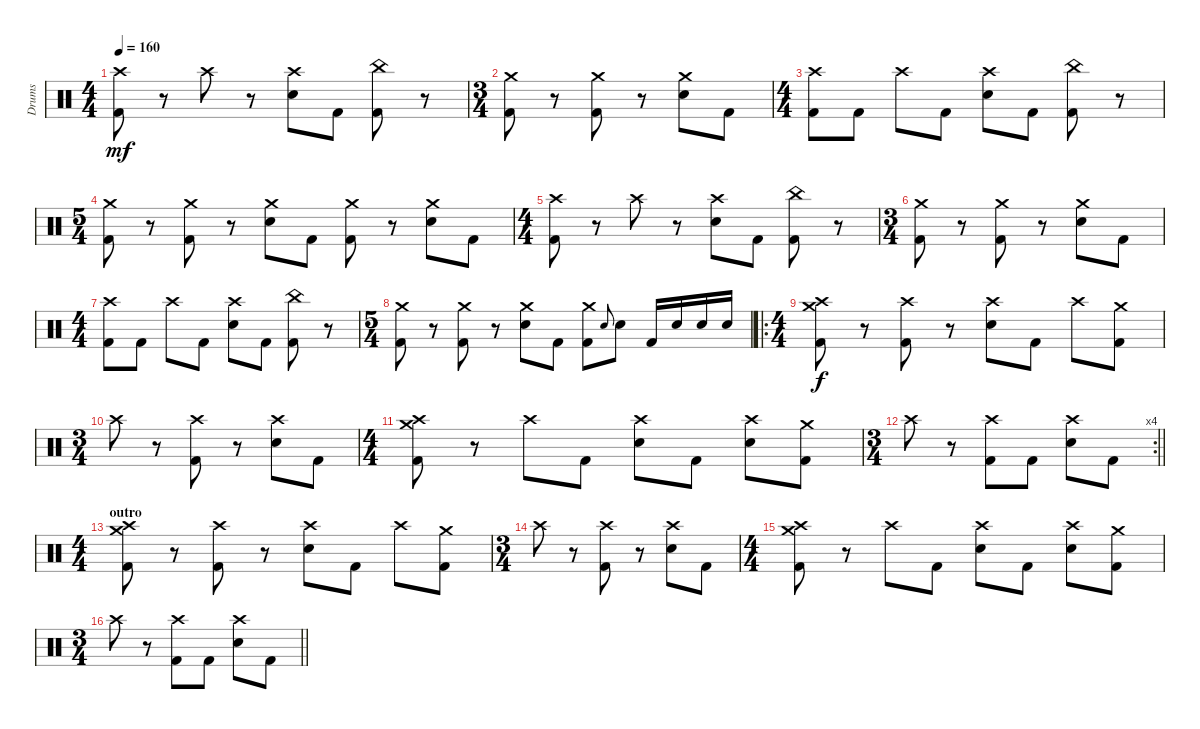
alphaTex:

\track ("Drums" "Drums") {instrument percussion}
\staff {score}
\articulation defaults
\ts (4 4)
\tempo 160
\clef neutral
\ks c
("Crash high (hit)" "Kick (hit) 2").8{dy mf} r.8 "Crash high (hit)".8 r.8 ("Crash high (hit)" "Electric Snare (hit)").8 "Kick (hit) 2".8 ("China (hit)" "Kick (hit) 2").8 r.8 |
\ts (3 4)
("Crash medium (hit)" "Kick (hit) 2").8 r.8 ("Crash medium (hit)" "Kick (hit) 2").8 r.8 ("Crash medium (hit)" "Electric Snare (hit)").8 "Kick (hit) 2".8 |
\ts (4 4)
("Crash high (hit)" "Kick (hit) 2").8 "Kick (hit) 2".8 "Crash high (hit)".8 "Kick (hit) 2".8 ("Crash high (hit)" "Electric Snare (hit)").8 "Kick (hit) 2".8 ("China (hit)" "Kick (hit) 2").8 r.8 |
\ts (5 4)
("Crash medium (hit)" "Kick (hit) 2").8 r.8 ("Crash medium (hit)" "Kick (hit) 2").8 r.8 ("Crash medium (hit)" "Electric Snare (hit)").8 "Kick (hit) 2".8 ("Crash medium (hit)" "Kick (hit) 2").8 r.8 ("Crash medium (hit)" "Electric Snare (hit)").8 "Kick (hit) 2".8 |
\ts (4 4)
("Crash high (hit)" "Kick (hit) 2").8 r.8 "Crash high (hit)".8 r.8 ("Crash high (hit)" "Electric Snare (hit)").8 "Kick (hit) 2".8 ("China (hit)" "Kick (hit) 2").8 r.8 |
\ts (3 4)
("Crash medium (hit)" "Kick (hit) 2").8 r.8 ("Crash medium (hit)" "Kick (hit) 2").8 r.8 ("Crash medium (hit)" "Electric Snare (hit)").8 "Kick (hit) 2".8 |
\ts (4 4)
("Crash high (hit)" "Kick (hit) 2").8 "Kick (hit) 2".8 "Crash high (hit)".8 "Kick (hit) 2".8 ("Crash high (hit)" "Electric Snare (hit)").8 "Kick (hit) 2".8 ("China (hit)" "Kick (hit) 2").8 r.8 |
\ts (5 4)
("Crash medium (hit)" "Kick (hit) 2").8 r.8 ("Crash medium (hit)" "Kick (hit) 2").8 r.8 ("Crash medium (hit)" "Electric Snare (hit)").8 "Kick (hit) 2".8 ("Crash medium (hit)" "Kick (hit) 2").8 "Electric Snare (hit)".8{gr onbeat} "Electric Snare (hit)".8 "Kick (hit) 2".16 "Electric Snare (hit)".16 "Electric Snare (hit)".16 "Electric Snare (hit)".16 |
\ro
\ts (4 4)
("Crash high (hit)" "Crash medium (hit)" "Kick (hit) 2").8{dy f} r.8 ("Crash high (hit)" "Kick (hit) 2").8 r.8 ("Crash high (hit)" "Electric Snare (hit)").8 "Kick (hit) 2".8 "Crash high (hit)".8 ("Crash medium (hit)" "Kick (hit) 2").8 |
\ts (3 4)
"Crash high (hit)".8 r.8 ("Crash high (hit)" "Kick (hit) 2").8 r.8 ("Crash high (hit)" "Electric Snare (hit)").8 "Kick (hit) 2".8 |
\ts (4 4)
("Crash high (hit)" "Crash medium (hit)" "Kick (hit) 2").8 r.8 "Crash high (hit)".8 "Kick (hit) 2".8 ("Crash high (hit)" "Electric Snare (hit)").8 "Kick (hit) 2".8 ("Crash high (hit)" "Electric Snare (hit)").8 ("Crash medium (hit)" "Kick (hit) 2").8 |
\rc 4
\ts (3 4)
\barLineRight lightlight "Crash high (hit)".8
r.8 ("Crash high (hit)" "Kick (hit) 2").8 "Kick (hit) 2".8 ("Crash high (hit)" "Electric Snare (hit)").8 "Kick (hit) 2".8 |
\ts (4 4)
\section ("" "outro")
("Crash high (hit)" "Crash medium (hit)" "Kick (hit) 2").8 r.8 ("Crash high (hit)" "Kick (hit) 2").8 r.8 ("Crash high (hit)" "Electric Snare (hit)").8 "Kick (hit) 2".8 "Crash high (hit)".8 ("Crash medium (hit)" "Kick (hit) 2").8 |
\ts (3 4)
"Crash high (hit)".8 r.8 ("Crash high (hit)" "Kick (hit) 2").8 r.8 ("Crash high (hit)" "Electric Snare (hit)").8 "Kick (hit) 2".8 |
\ts (4 4)
("Crash high (hit)" "Crash medium (hit)" "Kick (hit) 2").8 r.8 "Crash high (hit)".8 "Kick (hit) 2".8 ("Crash high (hit)" "Electric Snare (hit)").8 "Kick (hit) 2".8 ("Crash high (hit)" "Electric Snare (hit)").8 ("Crash medium (hit)" "Kick (hit) 2").8 |
\ts (3 4)
\barLineRight lightlight "Crash high (hit)".8
r.8 ("Crash high (hit)" "Kick (hit) 2").8 "Kick (hit) 2".8 ("Crash high (hit)" "Electric Snare (hit)").8 "Kick (hit) 2".8
